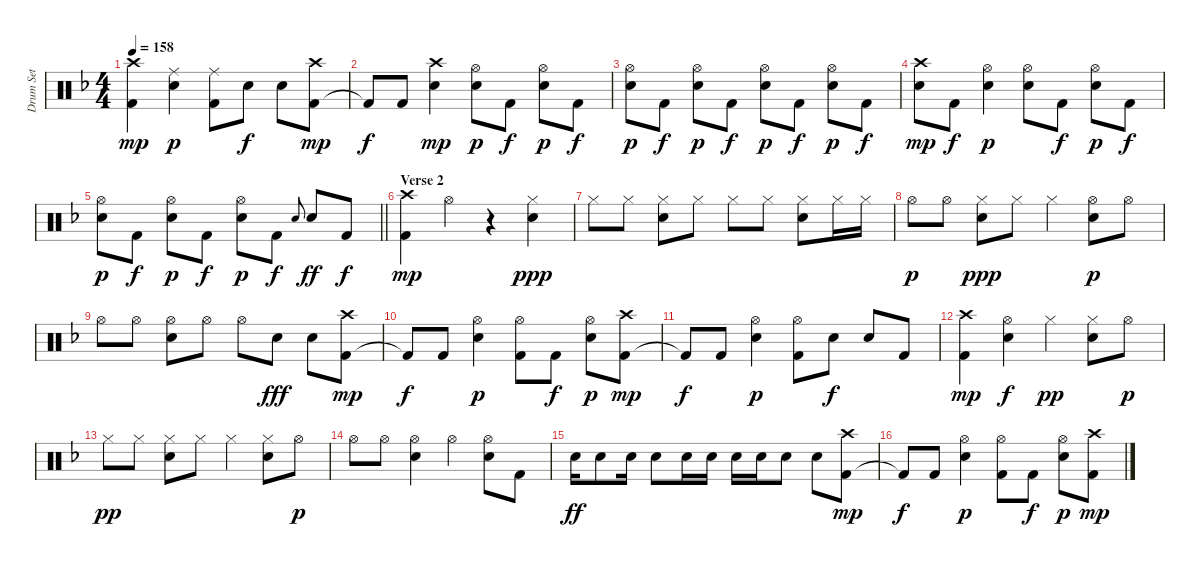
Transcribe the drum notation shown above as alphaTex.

\track ("Drum Set" "Drum Set") {instrument percussion}
\staff {score}
\articulation defaults
\ts (4 4)
\tempo 158
\clef neutral
\ks f
("Kick (hit) 2" "Crash high (hit)").4{dy mp} ("Electric Snare (hit)" "Ride (middle)").4{dy p} ("Kick (hit) 2" "Ride (middle)").8 "Electric Snare (hit)".8{dy f} "Electric Snare (hit)".8 ("Kick (hit) 2" "Crash high (hit)").8{dy mp} |
"Kick (hit) 2"{t}.8{dy f} "Kick (hit) 2".8 ("Electric Snare (hit)" "Crash high (hit)").4{dy mp} ("Electric Snare (hit)" "Hi-Hat (open)").8{dy p} "Kick (hit) 2".8{dy f} ("Electric Snare (hit)" "Hi-Hat (open)").8{dy p} "Kick (hit) 2".8{dy f} |
("Electric Snare (hit)" "Hi-Hat (open)").8{dy p} "Kick (hit) 2".8{dy f} ("Electric Snare (hit)" "Hi-Hat (open)").8{dy p} "Kick (hit) 2".8{dy f} ("Electric Snare (hit)" "Hi-Hat (open)").8{dy p} "Kick (hit) 2".8{dy f} ("Electric Snare (hit)" "Hi-Hat (open)").8{dy p} "Kick (hit) 2".8{dy f} |
("Electric Snare (hit)" "Crash high (hit)").8{dy mp} "Kick (hit) 2".8{dy f} ("Electric Snare (hit)" "Hi-Hat (open)").4{dy p} ("Electric Snare (hit)" "Hi-Hat (open)").8 "Kick (hit) 2".8{dy f} ("Electric Snare (hit)" "Hi-Hat (open)").8{dy p} "Kick (hit) 2".8{dy f} |
\barLineRight lightlight
("Electric Snare (hit)" "Hi-Hat (open)").8{dy p} "Kick (hit) 2".8{dy f} ("Electric Snare (hit)" "Hi-Hat (open)").8{dy p} "Kick (hit) 2".8{dy f} ("Electric Snare (hit)" "Hi-Hat (open)").8{dy p} "Kick (hit) 2".8{dy f} "Electric Snare (hit)".8{gr onbeat} "Electric Snare (hit)".8{dy ff} "Kick (hit) 2".8{dy f} |
\section ("" "Verse 2")
("Kick (hit) 2" "Crash high (hit)").4{dy mp} "Hi-Hat (open)".4 r.4 ("Electric Snare (hit)" "Hi-Hat (closed)").4{dy ppp} |
"Hi-Hat (closed)".8 "Hi-Hat (closed)".8 ("Hi-Hat (closed)" "Electric Snare (hit)").8 "Hi-Hat (closed)".8 "Hi-Hat (closed)".8 "Hi-Hat (closed)".8 ("Hi-Hat (closed)" "Electric Snare (hit)").8 "Hi-Hat (closed)".16 "Hi-Hat (closed)".16 |
"Hi-Hat (open)".8{dy p} "Hi-Hat (open)".8 ("Hi-Hat (closed)" "Electric Snare (hit)").8{dy ppp} "Hi-Hat (closed)".8 "Hi-Hat (closed)".4 ("Hi-Hat (open)" "Electric Snare (hit)").8{dy p} "Hi-Hat (open)".8 |
"Hi-Hat (open)".8 "Hi-Hat (open)".8 ("Hi-Hat (open)" "Electric Snare (hit)").8 "Hi-Hat (open)".8 "Hi-Hat (open)".8 "Electric Snare (hit)".8{dy fff} "Electric Snare (hit)".8 ("Kick (hit) 2" "Crash high (hit)").8{dy mp} |
"Kick (hit) 2"{t}.8{dy f} "Kick (hit) 2".8 ("Electric Snare (hit)" "Hi-Hat (open)").4{dy p} ("Kick (hit) 2" "Hi-Hat (open)").8 "Kick (hit) 2".8{dy f} ("Electric Snare (hit)" "Hi-Hat (open)").8{dy p} ("Kick (hit) 2" "Crash high (hit)").8{dy mp} |
"Kick (hit) 2"{t}.8{dy f} "Kick (hit) 2".8 ("Electric Snare (hit)" "Hi-Hat (open)").4{dy p} ("Kick (hit) 2" "Hi-Hat (open)").8 "Electric Snare (hit)".8{dy f} "Electric Snare (hit)".8 "Kick (hit) 2".8 |
("Kick (hit) 2" "Crash high (hit)").4{dy mp} ("Electric Snare (hit)" "Hi-Hat (open)").4{dy f} "Hi-Hat (closed)".4{dy pp} ("Hi-Hat (closed)" "Electric Snare (hit)").8 "Hi-Hat (open)".8{dy p} |
"Hi-Hat (closed)".8{dy pp} "Hi-Hat (closed)".8 ("Hi-Hat (closed)" "Electric Snare (hit)").8 "Hi-Hat (closed)".8 "Hi-Hat (closed)".4 ("Hi-Hat (closed)" "Electric Snare (hit)").8 "Hi-Hat (open)".8{dy p} |
"Hi-Hat (open)".8 "Hi-Hat (open)".8 ("Hi-Hat (open)" "Electric Snare (hit)").4 "Hi-Hat (open)".4 ("Hi-Hat (open)" "Electric Snare (hit)").8 "Kick (hit) 2".8 |
"Electric Snare (hit)".16{dy ff} "Electric Snare (hit)".8 "Electric Snare (hit)".16 "Electric Snare (hit)".8 "Electric Snare (hit)".16 "Electric Snare (hit)".16 "Electric Snare (hit)".16 "Electric Snare (hit)".16 "Electric Snare (hit)".8 "Electric Snare (hit)".8 ("Kick (hit) 2" "Crash high (hit)").8{dy mp} |
"Kick (hit) 2"{t}.8{dy f} "Kick (hit) 2".8 ("Electric Snare (hit)" "Hi-Hat (open)").4{dy p} ("Kick (hit) 2" "Hi-Hat (open)").8 "Kick (hit) 2".8{dy f} ("Electric Snare (hit)" "Hi-Hat (open)").8{dy p} ("Kick (hit) 2" "Crash high (hit)").8{dy mp}
